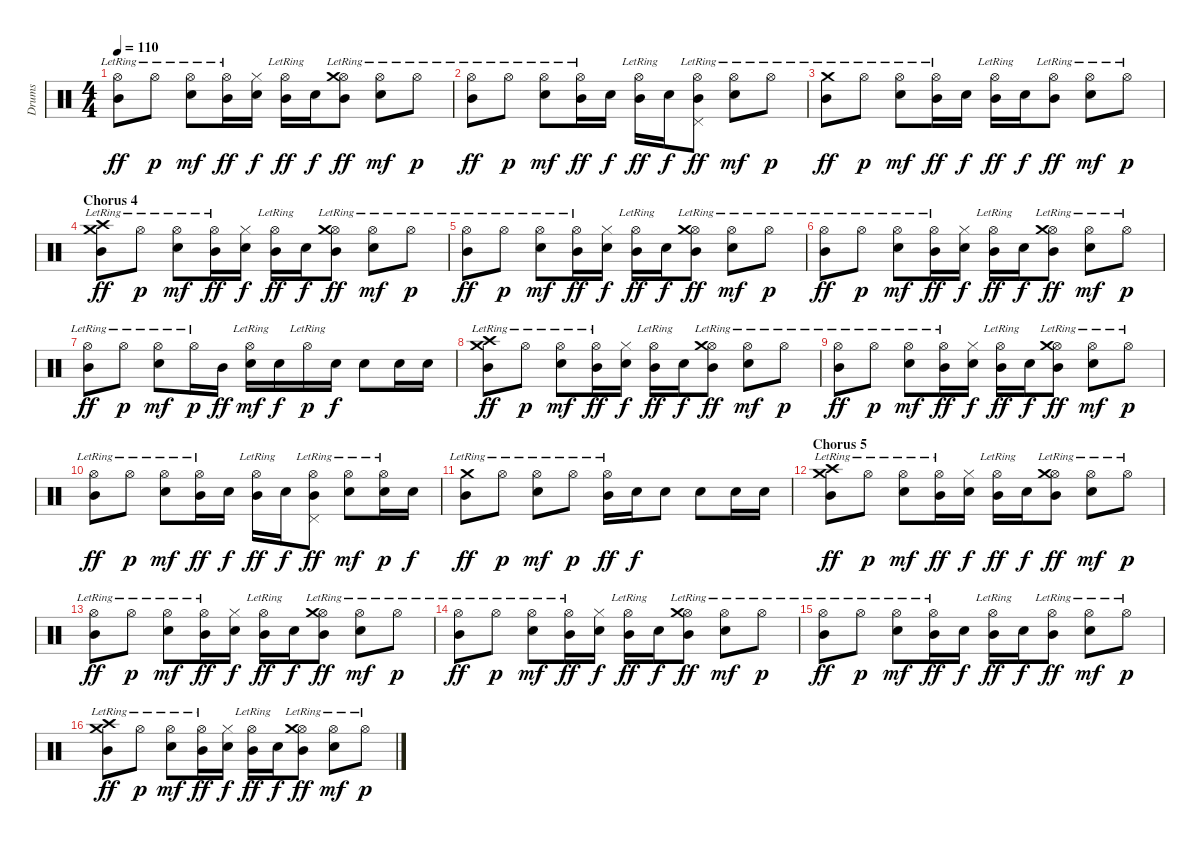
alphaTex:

\track ("Drums" "Drums") {instrument percussion}
\staff {score}
\articulation defaults
\ts (4 4)
\tempo 110
\clef neutral
\ks c
("Hi-Hat (open)"{lr} "Mid Tom (hit)").8{dy ff} "Hi-Hat (open)"{lr}.8{dy p} ("Hi-Hat (open)"{lr} "Electric Snare (hit)").8{dy mf} ("Hi-Hat (open)"{lr} "Mid Tom (hit)").16{dy ff} ("Hi-Hat (closed)" "Electric Snare (hit)").16{dy f} ("Hi-Hat (open)"{lr} "Mid Tom (hit)").16{dy ff} "Electric Snare (hit)".16{dy f} ("Hi-Hat (open)"{lr} "Crash medium (hit)"{lr} "Mid Tom (hit)").8{dy ff} ("Hi-Hat (open)"{lr} "Electric Snare (hit)").8{dy mf} "Hi-Hat (open)"{lr}.8{dy p} |
("Hi-Hat (open)"{lr} "Mid Tom (hit)").8{dy ff} "Hi-Hat (open)"{lr}.8{dy p} ("Hi-Hat (open)"{lr} "Electric Snare (hit)").8{dy mf} ("Hi-Hat (open)"{lr} "Mid Tom (hit)").16{dy ff} "Electric Snare (hit)".16{dy f} ("Hi-Hat (open)"{lr} "Mid Tom (hit)").16{dy ff} "Electric Snare (hit)".16{dy f} ("Hi-Hat (open)"{lr} "Pedal Hi-Hat (hit)" "Mid Tom (hit)").8{dy ff} ("Hi-Hat (open)"{lr} "Electric Snare (hit)").8{dy mf} "Hi-Hat (open)"{lr}.8{dy p} |
("Crash medium (hit)"{lr} "Mid Tom (hit)").8{dy ff} "Hi-Hat (open)"{lr}.8{dy p} ("Hi-Hat (open)"{lr} "Electric Snare (hit)").8{dy mf} ("Hi-Hat (open)"{lr} "Mid Tom (hit)").16{dy ff} "Electric Snare (hit)".16{dy f} ("Hi-Hat (open)"{lr} "Mid Tom (hit)").16{dy ff} "Electric Snare (hit)".16{dy f} ("Hi-Hat (open)"{lr} "Mid Tom (hit)").8{dy ff} ("Hi-Hat (open)"{lr} "Electric Snare (hit)").8{dy mf} "Hi-Hat (open)"{lr}.8{dy p} |
\section ("" "Chorus 4")
("Crash medium (hit)"{lr} "Crash high (hit)"{lr} "Mid Tom (hit)").8{dy ff} "Hi-Hat (open)"{lr}.8{dy p} ("Hi-Hat (open)"{lr} "Electric Snare (hit)").8{dy mf} ("Hi-Hat (open)"{lr} "Mid Tom (hit)").16{dy ff} ("Hi-Hat (closed)" "Electric Snare (hit)").16{dy f} ("Hi-Hat (open)"{lr} "Mid Tom (hit)").16{dy ff} "Electric Snare (hit)".16{dy f} ("Hi-Hat (open)"{lr} "Crash medium (hit)"{lr} "Mid Tom (hit)").8{dy ff} ("Hi-Hat (open)"{lr} "Electric Snare (hit)").8{dy mf} "Hi-Hat (open)"{lr}.8{dy p} |
("Hi-Hat (open)"{lr} "Mid Tom (hit)").8{dy ff} "Hi-Hat (open)"{lr}.8{dy p} ("Hi-Hat (open)"{lr} "Electric Snare (hit)").8{dy mf} ("Hi-Hat (open)"{lr} "Mid Tom (hit)").16{dy ff} ("Hi-Hat (closed)" "Electric Snare (hit)").16{dy f} ("Hi-Hat (open)"{lr} "Mid Tom (hit)").16{dy ff} "Electric Snare (hit)".16{dy f} ("Hi-Hat (open)"{lr} "Crash medium (hit)"{lr} "Mid Tom (hit)").8{dy ff} ("Hi-Hat (open)"{lr} "Electric Snare (hit)").8{dy mf} "Hi-Hat (open)"{lr}.8{dy p} |
("Hi-Hat (open)"{lr} "Mid Tom (hit)").8{dy ff} "Hi-Hat (open)"{lr}.8{dy p} ("Hi-Hat (open)"{lr} "Electric Snare (hit)").8{dy mf} ("Hi-Hat (open)"{lr} "Mid Tom (hit)").16{dy ff} ("Hi-Hat (closed)" "Electric Snare (hit)").16{dy f} ("Hi-Hat (open)"{lr} "Mid Tom (hit)").16{dy ff} "Electric Snare (hit)".16{dy f} ("Hi-Hat (open)"{lr} "Crash medium (hit)"{lr} "Mid Tom (hit)").8{dy ff} ("Hi-Hat (open)"{lr} "Electric Snare (hit)").8{dy mf} "Hi-Hat (open)"{lr}.8{dy p} |
("Hi-Hat (open)"{lr} "Mid Tom (hit)").8{dy ff} "Hi-Hat (open)"{lr}.8{dy p} ("Hi-Hat (open)"{lr} "Electric Snare (hit)").8{dy mf} "Hi-Hat (open)"{lr}.16{dy p} "Mid Tom (hit)".16{dy ff} ("Hi-Hat (open)"{lr} "Electric Snare (hit)").16{dy mf} "Electric Snare (hit)".16{dy f} "Hi-Hat (open)"{lr}.16{dy p} "Electric Snare (hit)".16{dy f} "Electric Snare (hit)".8 "Electric Snare (hit)".16 "Electric Snare (hit)".16 |
("Crash medium (hit)"{lr} "Crash high (hit)"{lr} "Mid Tom (hit)").8{dy ff} "Hi-Hat (open)"{lr}.8{dy p} ("Hi-Hat (open)"{lr} "Electric Snare (hit)").8{dy mf} ("Hi-Hat (open)"{lr} "Mid Tom (hit)").16{dy ff} ("Hi-Hat (closed)" "Electric Snare (hit)").16{dy f} ("Hi-Hat (open)"{lr} "Mid Tom (hit)").16{dy ff} "Electric Snare (hit)".16{dy f} ("Hi-Hat (open)"{lr} "Crash medium (hit)"{lr} "Mid Tom (hit)").8{dy ff} ("Hi-Hat (open)"{lr} "Electric Snare (hit)").8{dy mf} "Hi-Hat (open)"{lr}.8{dy p} |
("Hi-Hat (open)"{lr} "Mid Tom (hit)").8{dy ff} "Hi-Hat (open)"{lr}.8{dy p} ("Hi-Hat (open)"{lr} "Electric Snare (hit)").8{dy mf} ("Hi-Hat (open)"{lr} "Mid Tom (hit)").16{dy ff} ("Hi-Hat (closed)" "Electric Snare (hit)").16{dy f} ("Hi-Hat (open)"{lr} "Mid Tom (hit)").16{dy ff} "Electric Snare (hit)".16{dy f} ("Hi-Hat (open)"{lr} "Crash medium (hit)"{lr} "Mid Tom (hit)").8{dy ff} ("Hi-Hat (open)"{lr} "Electric Snare (hit)").8{dy mf} "Hi-Hat (open)"{lr}.8{dy p} |
("Hi-Hat (open)"{lr} "Mid Tom (hit)").8{dy ff} "Hi-Hat (open)"{lr}.8{dy p} ("Hi-Hat (open)"{lr} "Electric Snare (hit)").8{dy mf} ("Hi-Hat (open)"{lr} "Mid Tom (hit)").16{dy ff} "Electric Snare (hit)".16{dy f} ("Hi-Hat (open)"{lr} "Mid Tom (hit)").16{dy ff} "Electric Snare (hit)".16{dy f} ("Hi-Hat (open)"{lr} "Pedal Hi-Hat (hit)" "Mid Tom (hit)").8{dy ff} ("Hi-Hat (open)"{lr} "Electric Snare (hit)").8{dy mf} ("Hi-Hat (open)"{lr} "Electric Snare (hit)").16{dy p} "Electric Snare (hit)".16{dy f} |
("Crash medium (hit)"{lr} "Mid Tom (hit)").8{dy ff} "Hi-Hat (open)"{lr}.8{dy p} ("Hi-Hat (open)"{lr} "Electric Snare (hit)").8{dy mf} "Hi-Hat (open)"{lr}.8{dy p} ("Hi-Hat (open)"{lr} "Mid Tom (hit)").16{dy ff} "Electric Snare (hit)".16{dy f} "Electric Snare (hit)".8 "Electric Snare (hit)".8 "Electric Snare (hit)".16 "Electric Snare (hit)".16 |
\section ("" "Chorus 5")
("Crash medium (hit)"{lr} "Crash high (hit)"{lr} "Mid Tom (hit)").8{dy ff} "Hi-Hat (open)"{lr}.8{dy p} ("Hi-Hat (open)"{lr} "Electric Snare (hit)").8{dy mf} ("Hi-Hat (open)"{lr} "Mid Tom (hit)").16{dy ff} ("Hi-Hat (closed)" "Electric Snare (hit)").16{dy f} ("Hi-Hat (open)"{lr} "Mid Tom (hit)").16{dy ff} "Electric Snare (hit)".16{dy f} ("Hi-Hat (open)"{lr} "Crash medium (hit)"{lr} "Mid Tom (hit)").8{dy ff} ("Hi-Hat (open)"{lr} "Electric Snare (hit)").8{dy mf} "Hi-Hat (open)"{lr}.8{dy p} |
("Hi-Hat (open)"{lr} "Mid Tom (hit)").8{dy ff} "Hi-Hat (open)"{lr}.8{dy p} ("Hi-Hat (open)"{lr} "Electric Snare (hit)").8{dy mf} ("Hi-Hat (open)"{lr} "Mid Tom (hit)").16{dy ff} ("Hi-Hat (closed)" "Electric Snare (hit)").16{dy f} ("Hi-Hat (open)"{lr} "Mid Tom (hit)").16{dy ff} "Electric Snare (hit)".16{dy f} ("Hi-Hat (open)"{lr} "Crash medium (hit)"{lr} "Mid Tom (hit)").8{dy ff} ("Hi-Hat (open)"{lr} "Electric Snare (hit)").8{dy mf} "Hi-Hat (open)"{lr}.8{dy p} |
("Hi-Hat (open)"{lr} "Mid Tom (hit)").8{dy ff} "Hi-Hat (open)"{lr}.8{dy p} ("Hi-Hat (open)"{lr} "Electric Snare (hit)").8{dy mf} ("Hi-Hat (open)"{lr} "Mid Tom (hit)").16{dy ff} ("Hi-Hat (closed)" "Electric Snare (hit)").16{dy f} ("Hi-Hat (open)"{lr} "Mid Tom (hit)").16{dy ff} "Electric Snare (hit)".16{dy f} ("Hi-Hat (open)"{lr} "Crash medium (hit)"{lr} "Mid Tom (hit)").8{dy ff} ("Hi-Hat (open)"{lr} "Electric Snare (hit)").8{dy mf} "Hi-Hat (open)"{lr}.8{dy p} |
("Hi-Hat (open)"{lr} "Mid Tom (hit)").8{dy ff} "Hi-Hat (open)"{lr}.8{dy p} ("Hi-Hat (open)"{lr} "Electric Snare (hit)").8{dy mf} ("Hi-Hat (open)"{lr} "Mid Tom (hit)").16{dy ff} "Electric Snare (hit)".16{dy f} ("Hi-Hat (open)"{lr} "Mid Tom (hit)").16{dy ff} "Electric Snare (hit)".16{dy f} ("Hi-Hat (open)"{lr} "Mid Tom (hit)").8{dy ff} ("Hi-Hat (open)"{lr} "Electric Snare (hit)").8{dy mf} "Hi-Hat (open)"{lr}.8{dy p} |
("Crash medium (hit)"{lr} "Crash high (hit)"{lr} "Mid Tom (hit)").8{dy ff} "Hi-Hat (open)"{lr}.8{dy p} ("Hi-Hat (open)"{lr} "Electric Snare (hit)").8{dy mf} ("Hi-Hat (open)"{lr} "Mid Tom (hit)").16{dy ff} ("Hi-Hat (closed)" "Electric Snare (hit)").16{dy f} ("Hi-Hat (open)"{lr} "Mid Tom (hit)").16{dy ff} "Electric Snare (hit)".16{dy f} ("Hi-Hat (open)"{lr} "Crash medium (hit)"{lr} "Mid Tom (hit)").8{dy ff} ("Hi-Hat (open)"{lr} "Electric Snare (hit)").8{dy mf} "Hi-Hat (open)"{lr}.8{dy p}
